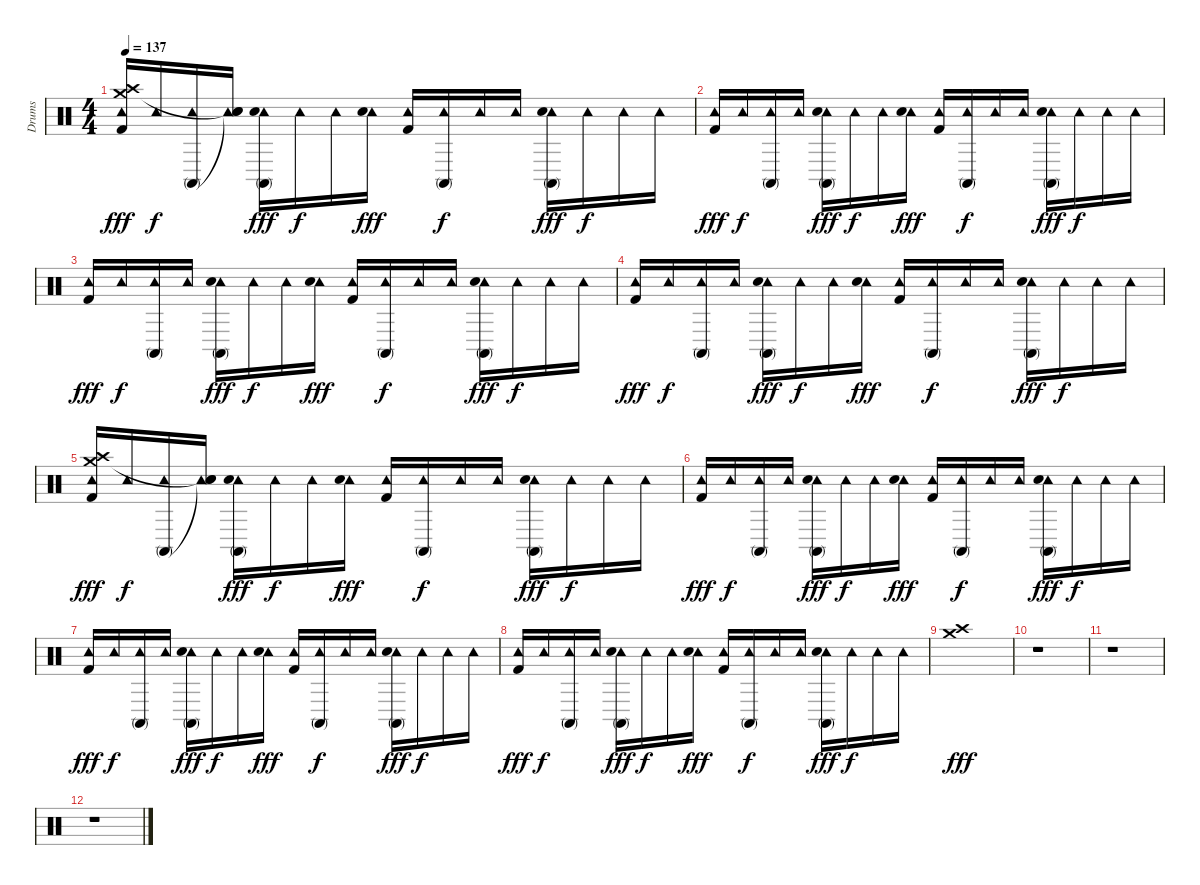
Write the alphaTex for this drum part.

\track ("Drums" "Drums") {instrument percussion}
\staff {score}
\articulation defaults
\ts (4 4)
\tempo 137
\clef neutral
\ks c
("Tambourine (hit)" "Crash high (hit)" "Crash medium (hit)" "Kick (hit) 2").16{dy fff} "Tambourine (hit)".16{dy f} ("Tambourine (hit)" "Conga high (mute)").16 ("Tambourine (hit)" "Snare (hit)"{t} "Snare (hit)"{t}).16 ("Tambourine (hit)" "Conga high (mute)" "Electric Snare (hit)").16{dy fff} "Tambourine (hit)".16{dy f} "Tambourine (hit)".16 ("Tambourine (hit)" "Electric Snare (hit)").16{dy fff} ("Tambourine (hit)" "Kick (hit) 2").16 ("Tambourine (hit)" "Conga high (mute)").16{dy f} "Tambourine (hit)".16 "Tambourine (hit)".16 ("Tambourine (hit)" "Conga high (mute)" "Electric Snare (hit)").16{dy fff} "Tambourine (hit)".16{dy f} "Tambourine (hit)".16 "Tambourine (hit)".16 |
("Tambourine (hit)" "Kick (hit) 2").16{dy fff} "Tambourine (hit)".16{dy f} ("Tambourine (hit)" "Conga high (mute)").16 "Tambourine (hit)".16 ("Tambourine (hit)" "Conga high (mute)" "Electric Snare (hit)").16{dy fff} "Tambourine (hit)".16{dy f} "Tambourine (hit)".16 ("Tambourine (hit)" "Electric Snare (hit)").16{dy fff} ("Tambourine (hit)" "Kick (hit) 2").16 ("Tambourine (hit)" "Conga high (mute)").16{dy f} "Tambourine (hit)".16 "Tambourine (hit)".16 ("Tambourine (hit)" "Conga high (mute)" "Electric Snare (hit)").16{dy fff} "Tambourine (hit)".16{dy f} "Tambourine (hit)".16 "Tambourine (hit)".16 |
("Tambourine (hit)" "Kick (hit) 2").16{dy fff} "Tambourine (hit)".16{dy f} ("Tambourine (hit)" "Conga high (mute)").16 "Tambourine (hit)".16 ("Tambourine (hit)" "Conga high (mute)" "Electric Snare (hit)").16{dy fff} "Tambourine (hit)".16{dy f} "Tambourine (hit)".16 ("Tambourine (hit)" "Electric Snare (hit)").16{dy fff} ("Tambourine (hit)" "Kick (hit) 2").16 ("Tambourine (hit)" "Conga high (mute)").16{dy f} "Tambourine (hit)".16 "Tambourine (hit)".16 ("Tambourine (hit)" "Conga high (mute)" "Electric Snare (hit)").16{dy fff} "Tambourine (hit)".16{dy f} "Tambourine (hit)".16 "Tambourine (hit)".16 |
("Tambourine (hit)" "Kick (hit) 2").16{dy fff} "Tambourine (hit)".16{dy f} ("Tambourine (hit)" "Conga high (mute)").16 "Tambourine (hit)".16 ("Tambourine (hit)" "Conga high (mute)" "Electric Snare (hit)").16{dy fff} "Tambourine (hit)".16{dy f} "Tambourine (hit)".16 ("Tambourine (hit)" "Electric Snare (hit)").16{dy fff} ("Tambourine (hit)" "Kick (hit) 2").16 ("Tambourine (hit)" "Conga high (mute)").16{dy f} "Tambourine (hit)".16 "Tambourine (hit)".16 ("Tambourine (hit)" "Conga high (mute)" "Electric Snare (hit)").16{dy fff} "Tambourine (hit)".16{dy f} "Tambourine (hit)".16 "Tambourine (hit)".16 |
("Tambourine (hit)" "Crash high (hit)" "Crash medium (hit)" "Kick (hit) 2").16{dy fff} "Tambourine (hit)".16{dy f} ("Tambourine (hit)" "Conga high (mute)").16 ("Tambourine (hit)" "Snare (hit)"{t} "Snare (hit)"{t}).16 ("Tambourine (hit)" "Conga high (mute)" "Electric Snare (hit)").16{dy fff} "Tambourine (hit)".16{dy f} "Tambourine (hit)".16 ("Tambourine (hit)" "Electric Snare (hit)").16{dy fff} ("Tambourine (hit)" "Kick (hit) 2").16 ("Tambourine (hit)" "Conga high (mute)").16{dy f} "Tambourine (hit)".16 "Tambourine (hit)".16 ("Tambourine (hit)" "Conga high (mute)" "Electric Snare (hit)").16{dy fff} "Tambourine (hit)".16{dy f} "Tambourine (hit)".16 "Tambourine (hit)".16 |
("Tambourine (hit)" "Kick (hit) 2").16{dy fff} "Tambourine (hit)".16{dy f} ("Tambourine (hit)" "Conga high (mute)").16 "Tambourine (hit)".16 ("Tambourine (hit)" "Conga high (mute)" "Electric Snare (hit)").16{dy fff} "Tambourine (hit)".16{dy f} "Tambourine (hit)".16 ("Tambourine (hit)" "Electric Snare (hit)").16{dy fff} ("Tambourine (hit)" "Kick (hit) 2").16 ("Tambourine (hit)" "Conga high (mute)").16{dy f} "Tambourine (hit)".16 "Tambourine (hit)".16 ("Tambourine (hit)" "Conga high (mute)" "Electric Snare (hit)").16{dy fff} "Tambourine (hit)".16{dy f} "Tambourine (hit)".16 "Tambourine (hit)".16 |
("Tambourine (hit)" "Kick (hit) 2").16{dy fff} "Tambourine (hit)".16{dy f} ("Tambourine (hit)" "Conga high (mute)").16 "Tambourine (hit)".16 ("Tambourine (hit)" "Conga high (mute)" "Electric Snare (hit)").16{dy fff} "Tambourine (hit)".16{dy f} "Tambourine (hit)".16 ("Tambourine (hit)" "Electric Snare (hit)").16{dy fff} ("Tambourine (hit)" "Kick (hit) 2").16 ("Tambourine (hit)" "Conga high (mute)").16{dy f} "Tambourine (hit)".16 "Tambourine (hit)".16 ("Tambourine (hit)" "Conga high (mute)" "Electric Snare (hit)").16{dy fff} "Tambourine (hit)".16{dy f} "Tambourine (hit)".16 "Tambourine (hit)".16 |
("Tambourine (hit)" "Kick (hit) 2").16{dy fff} "Tambourine (hit)".16{dy f} ("Tambourine (hit)" "Conga high (mute)").16 "Tambourine (hit)".16 ("Tambourine (hit)" "Conga high (mute)" "Electric Snare (hit)").16{dy fff} "Tambourine (hit)".16{dy f} "Tambourine (hit)".16 ("Tambourine (hit)" "Electric Snare (hit)").16{dy fff} ("Tambourine (hit)" "Kick (hit) 2").16 ("Tambourine (hit)" "Conga high (mute)").16{dy f} "Tambourine (hit)".16 "Tambourine (hit)".16 ("Tambourine (hit)" "Conga high (mute)" "Electric Snare (hit)").16{dy fff} "Tambourine (hit)".16{dy f} "Tambourine (hit)".16 "Tambourine (hit)".16 |
("Crash high (hit)" "Crash medium (hit)").1{dy fff} |
r.1 |
r.1 |
r.1
